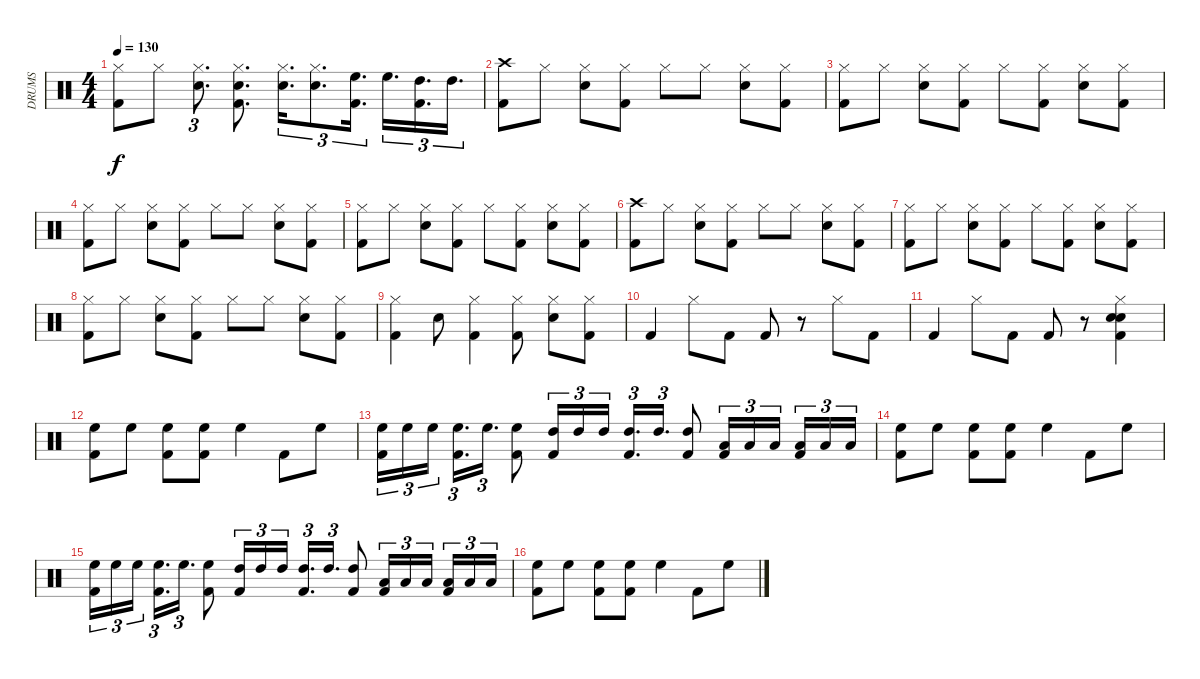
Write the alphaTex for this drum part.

\track ("DRUMS" "DRUMS") {instrument percussion}
\staff {score}
\articulation defaults
\ts (4 4)
\tempo 130
\clef neutral
\ks c
("Hi-Hat (closed)" "Kick (hit) 2").8{dy f} "Hi-Hat (closed)".8 ("Hi-Hat (closed)" "Snare (hit) 2").8{d tu (3 2)} ("Hi-Hat (closed)" "Snare (hit) 2" "Kick (hit) 2").8{d} ("Hi-Hat (closed)" "Snare (hit) 2").16{d tu (3 2)} ("Hi-Hat (closed)" "Snare (hit) 2").8{d tu (3 2)} ("High Floor Tom (hit)" "Kick (hit) 2").16{d tu (3 2) balance 0} "High Floor Tom (hit)".16{d tu (3 2)} ("High Tom (hit)" "Kick (hit) 2").16{d tu (3 2) balance 16} "High Tom (hit)".16{d tu (3 2)} |
("Crash high (hit)" "Kick (hit) 2").8{balance 8} "Hi-Hat (closed)".8 ("Hi-Hat (closed)" "Snare (hit) 2").8 ("Hi-Hat (closed)" "Kick (hit) 2").8 "Hi-Hat (closed)".8 "Hi-Hat (closed)".8 ("Hi-Hat (closed)" "Snare (hit) 2").8 ("Hi-Hat (closed)" "Kick (hit) 2").8 |
("Hi-Hat (closed)" "Kick (hit) 2").8 "Hi-Hat (closed)".8 ("Hi-Hat (closed)" "Snare (hit) 2").8 ("Hi-Hat (closed)" "Kick (hit) 2").8 "Hi-Hat (closed)".8 ("Hi-Hat (closed)" "Kick (hit) 2").8 ("Hi-Hat (closed)" "Snare (hit) 2").8 ("Hi-Hat (closed)" "Kick (hit) 2").8 |
("Hi-Hat (closed)" "Kick (hit) 2").8 "Hi-Hat (closed)".8 ("Hi-Hat (closed)" "Snare (hit) 2").8 ("Hi-Hat (closed)" "Kick (hit) 2").8 "Hi-Hat (closed)".8 "Hi-Hat (closed)".8 ("Hi-Hat (closed)" "Snare (hit) 2").8 ("Hi-Hat (closed)" "Kick (hit) 2").8 |
("Hi-Hat (closed)" "Kick (hit) 2").8 "Hi-Hat (closed)".8 ("Hi-Hat (closed)" "Snare (hit) 2").8 ("Hi-Hat (closed)" "Kick (hit) 2").8 "Hi-Hat (closed)".8 ("Hi-Hat (closed)" "Kick (hit) 2").8 ("Hi-Hat (closed)" "Snare (hit) 2").8 ("Hi-Hat (closed)" "Kick (hit) 2").8 |
("Crash high (hit)" "Kick (hit) 2").8 "Hi-Hat (closed)".8 ("Hi-Hat (closed)" "Snare (hit) 2").8 ("Hi-Hat (closed)" "Kick (hit) 2").8 "Hi-Hat (closed)".8 "Hi-Hat (closed)".8 ("Hi-Hat (closed)" "Snare (hit) 2").8 ("Hi-Hat (closed)" "Kick (hit) 2").8 |
("Hi-Hat (closed)" "Kick (hit) 2").8 "Hi-Hat (closed)".8 ("Hi-Hat (closed)" "Snare (hit) 2").8 ("Hi-Hat (closed)" "Kick (hit) 2").8 "Hi-Hat (closed)".8 ("Hi-Hat (closed)" "Kick (hit) 2").8 ("Hi-Hat (closed)" "Snare (hit) 2").8 ("Hi-Hat (closed)" "Kick (hit) 2").8 |
("Hi-Hat (closed)" "Kick (hit) 2").8 "Hi-Hat (closed)".8 ("Hi-Hat (closed)" "Snare (hit) 2").8 ("Hi-Hat (closed)" "Kick (hit) 2").8 "Hi-Hat (closed)".8 "Hi-Hat (closed)".8 ("Hi-Hat (closed)" "Snare (hit) 2").8 ("Hi-Hat (closed)" "Kick (hit) 2").8 |
("Hi-Hat (closed)" "Kick (hit) 2").4 "Snare (hit) 2".8 ("Hi-Hat (closed)" "Kick (hit) 2").4 ("Hi-Hat (closed)" "Kick (hit) 2").8 ("Hi-Hat (closed)" "Snare (hit) 2").8 ("Hi-Hat (closed)" "Kick (hit) 2").8 |
"Kick (hit) 2".4 "Hi-Hat (closed)".8 "Kick (hit) 2".8 "Kick (hit) 2".8 r.8 "Hi-Hat (closed)".8 "Kick (hit) 2".8 |
"Kick (hit) 2".4 "Hi-Hat (closed)".8 "Kick (hit) 2".8 "Kick (hit) 2".8 r.8 ("Hi-Hat (closed)" "Snare (hit) 2" "Snare (hit) 2" "Kick (hit) 2").4 |
("High Floor Tom (hit)" "Kick (hit) 2").8 "High Floor Tom (hit)".8 ("High Floor Tom (hit)" "Kick (hit) 2").8 ("High Floor Tom (hit)" "Kick (hit) 2").8 "High Floor Tom (hit)".4 "Kick (hit) 2".8 "High Floor Tom (hit)".8 |
("High Floor Tom (hit)" "Kick (hit) 2").16{tu (3 2) balance 1} "High Floor Tom (hit)".16{tu (3 2)} "High Floor Tom (hit)".16{tu (3 2)} ("High Floor Tom (hit)" "Kick (hit) 2").16{d tu (3 2)} "High Floor Tom (hit)".16{d tu (3 2)} ("High Floor Tom (hit)" "Kick (hit) 2").8 ("High Tom (hit)" "Kick (hit) 2").16{tu (3 2) balance 8} "High Tom (hit)".16{tu (3 2)} "High Tom (hit)".16{tu (3 2)} ("High Tom (hit)" "Kick (hit) 2").16{d tu (3 2)} "High Tom (hit)".16{d tu (3 2)} ("High Tom (hit)" "Kick (hit) 2").8 ("Low Tom (hit)" "Kick (hit) 2").16{tu (3 2) balance 16} "Low Tom (hit)".16{tu (3 2)} "Low Tom (hit)".16{tu (3 2)} ("Low Tom (hit)" "Kick (hit) 2").16{tu (3 2)} "Low Tom (hit)".16{tu (3 2)} "Low Tom (hit)".16{tu (3 2)} |
("High Floor Tom (hit)" "Kick (hit) 2").8{balance 8} "High Floor Tom (hit)".8 ("High Floor Tom (hit)" "Kick (hit) 2").8 ("High Floor Tom (hit)" "Kick (hit) 2").8 "High Floor Tom (hit)".4 "Kick (hit) 2".8 "High Floor Tom (hit)".8 |
("High Floor Tom (hit)" "Kick (hit) 2").16{tu (3 2) balance 1} "High Floor Tom (hit)".16{tu (3 2)} "High Floor Tom (hit)".16{tu (3 2)} ("High Floor Tom (hit)" "Kick (hit) 2").16{d tu (3 2)} "High Floor Tom (hit)".16{d tu (3 2)} ("High Floor Tom (hit)" "Kick (hit) 2").8 ("High Tom (hit)" "Kick (hit) 2").16{tu (3 2) balance 8} "High Tom (hit)".16{tu (3 2)} "High Tom (hit)".16{tu (3 2)} ("High Tom (hit)" "Kick (hit) 2").16{d tu (3 2)} "High Tom (hit)".16{d tu (3 2)} ("High Tom (hit)" "Kick (hit) 2").8 ("Low Tom (hit)" "Kick (hit) 2").16{tu (3 2) balance 16} "Low Tom (hit)".16{tu (3 2)} "Low Tom (hit)".16{tu (3 2)} ("Low Tom (hit)" "Kick (hit) 2").16{tu (3 2)} "Low Tom (hit)".16{tu (3 2)} "Low Tom (hit)".16{tu (3 2)} |
("High Floor Tom (hit)" "Kick (hit) 2").8{balance 8} "High Floor Tom (hit)".8 ("High Floor Tom (hit)" "Kick (hit) 2").8 ("High Floor Tom (hit)" "Kick (hit) 2").8 "High Floor Tom (hit)".4 "Kick (hit) 2".8 "High Floor Tom (hit)".8
